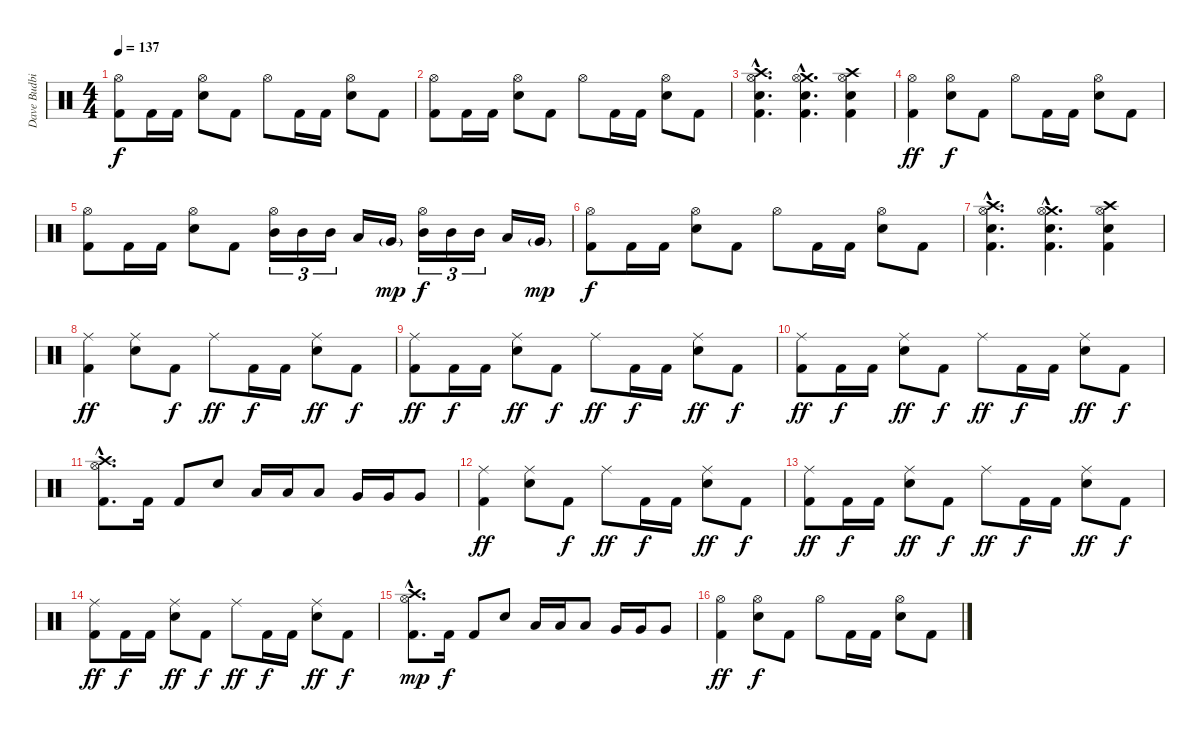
\track ("Dave Budbill" "Dave Budbi") {instrument percussion}
\staff {score}
\articulation defaults
\ts (4 4)
\tempo 137
\clef neutral
\ks c
("Hi-Hat (open)" "Kick (hit) 2").8{dy f} "Kick (hit) 2".16 "Kick (hit) 2".16 ("Hi-Hat (open)" "Electric Snare (hit)").8 "Kick (hit) 2".8 "Hi-Hat (open)".8 "Kick (hit) 2".16 "Kick (hit) 2".16 ("Hi-Hat (open)" "Electric Snare (hit)").8 "Kick (hit) 2".8 |
("Hi-Hat (open)" "Kick (hit) 2").8 "Kick (hit) 2".16 "Kick (hit) 2".16 ("Hi-Hat (open)" "Electric Snare (hit)").8 "Kick (hit) 2".8 "Hi-Hat (open)".8 "Kick (hit) 2".16 "Kick (hit) 2".16 ("Hi-Hat (open)" "Electric Snare (hit)").8 "Kick (hit) 2".8 |
("Snare (hit) 2"{hac} "Crash high (hit)"{hac} "Hi-Hat (open)"{hac} "Kick (hit) 2"{hac}).4{d} ("Snare (hit) 2"{hac} "Crash medium (hit)"{hac} "Hi-Hat (open)"{hac} "Kick (hit) 2"{hac}).4{d} ("Snare (hit) 2" "Crash high (hit)" "Hi-Hat (open)" "Kick (hit) 2").4 |
("Hi-Hat (open)" "Kick (hit) 2").4{dy ff} ("Hi-Hat (open)" "Electric Snare (hit)").8{dy f} "Kick (hit) 2".8 "Hi-Hat (open)".8 "Kick (hit) 2".16 "Kick (hit) 2".16 ("Hi-Hat (open)" "Electric Snare (hit)").8 "Kick (hit) 2".8 |
("Hi-Hat (open)" "Kick (hit) 2").8 "Kick (hit) 2".16 "Kick (hit) 2".16 ("Hi-Hat (open)" "Electric Snare (hit)").8 "Kick (hit) 2".8 ("Hi-Hat (open)" "Mid Tom (hit)").16{tu (3 2)} "Mid Tom (hit)".16{tu (3 2)} "Mid Tom (hit)".16{tu (3 2)} "Low Tom (hit)".16 "Very Low Tom (hit)"{g}.16{dy mp} ("Hi-Hat (open)" "Mid Tom (hit)").16{tu (3 2) dy f} "Mid Tom (hit)".16{tu (3 2)} "Mid Tom (hit)".16{tu (3 2)} "Low Tom (hit)".16 "Very Low Tom (hit)"{g}.16{dy mp} |
("Hi-Hat (open)" "Kick (hit) 2").8{dy f} "Kick (hit) 2".16 "Kick (hit) 2".16 ("Hi-Hat (open)" "Electric Snare (hit)").8 "Kick (hit) 2".8 "Hi-Hat (open)".8 "Kick (hit) 2".16 "Kick (hit) 2".16 ("Hi-Hat (open)" "Electric Snare (hit)").8 "Kick (hit) 2".8 |
("Snare (hit) 2"{hac} "Crash high (hit)"{hac} "Hi-Hat (open)"{hac} "Kick (hit) 2"{hac}).4{d} ("Snare (hit) 2"{hac} "Crash medium (hit)"{hac} "Hi-Hat (open)"{hac} "Kick (hit) 2"{hac}).4{d} ("Snare (hit) 2" "Crash high (hit)" "Hi-Hat (open)" "Kick (hit) 2").4 |
("Ride (middle)" "Kick (hit) 2").4{dy ff} ("Ride (middle)" "Electric Snare (hit)").8 "Kick (hit) 2".8{dy f} "Ride (middle)".8{dy ff} "Kick (hit) 2".16{dy f} "Kick (hit) 2".16 ("Ride (middle)" "Electric Snare (hit)").8{dy ff} "Kick (hit) 2".8{dy f} |
("Ride (middle)" "Kick (hit) 2").8{dy ff} "Kick (hit) 2".16{dy f} "Kick (hit) 2".16 ("Ride (middle)" "Electric Snare (hit)").8{dy ff} "Kick (hit) 2".8{dy f} "Ride (middle)".8{dy ff} "Kick (hit) 2".16{dy f} "Kick (hit) 2".16 ("Ride (middle)" "Electric Snare (hit)").8{dy ff} "Kick (hit) 2".8{dy f} |
("Ride (middle)" "Kick (hit) 2").8{dy ff} "Kick (hit) 2".16{dy f} "Kick (hit) 2".16 ("Ride (middle)" "Electric Snare (hit)").8{dy ff} "Kick (hit) 2".8{dy f} "Ride (middle)".8{dy ff} "Kick (hit) 2".16{dy f} "Kick (hit) 2".16 ("Ride (middle)" "Electric Snare (hit)").8{dy ff} "Kick (hit) 2".8{dy f} |
("Crash high (hit)"{hac} "Hi-Hat (open)"{hac} "Kick (hit) 2"{hac}).8{d} "Kick (hit) 2".16 "Kick (hit) 2".8 "Snare (hit) 2".8 "Low Tom (hit)".16 "Low Tom (hit)".16 "Low Tom (hit)".8 "Very Low Tom (hit)".16 "Very Low Tom (hit)".16 "Very Low Tom (hit)".8 |
("Ride (middle)" "Kick (hit) 2").4{dy ff} ("Ride (middle)" "Electric Snare (hit)").8 "Kick (hit) 2".8{dy f} "Ride (middle)".8{dy ff} "Kick (hit) 2".16{dy f} "Kick (hit) 2".16 ("Ride (middle)" "Electric Snare (hit)").8{dy ff} "Kick (hit) 2".8{dy f} |
("Ride (middle)" "Kick (hit) 2").8{dy ff} "Kick (hit) 2".16{dy f} "Kick (hit) 2".16 ("Ride (middle)" "Electric Snare (hit)").8{dy ff} "Kick (hit) 2".8{dy f} "Ride (middle)".8{dy ff} "Kick (hit) 2".16{dy f} "Kick (hit) 2".16 ("Ride (middle)" "Electric Snare (hit)").8{dy ff} "Kick (hit) 2".8{dy f} |
("Ride (middle)" "Kick (hit) 2").8{dy ff} "Kick (hit) 2".16{dy f} "Kick (hit) 2".16 ("Ride (middle)" "Electric Snare (hit)").8{dy ff} "Kick (hit) 2".8{dy f} "Ride (middle)".8{dy ff} "Kick (hit) 2".16{dy f} "Kick (hit) 2".16 ("Ride (middle)" "Electric Snare (hit)").8{dy ff} "Kick (hit) 2".8{dy f} |
("Crash high (hit)"{hac} "Hi-Hat (open)"{hac} "Kick (hit) 2"{hac}).8{d dy mp} "Kick (hit) 2".16{dy f} "Kick (hit) 2".8 "Snare (hit) 2".8 "Low Tom (hit)".16 "Low Tom (hit)".16 "Low Tom (hit)".8 "Very Low Tom (hit)".16 "Very Low Tom (hit)".16 "Very Low Tom (hit)".8 |
("Hi-Hat (open)" "Kick (hit) 2").4{dy ff} ("Hi-Hat (open)" "Electric Snare (hit)").8{dy f} "Kick (hit) 2".8 "Hi-Hat (open)".8 "Kick (hit) 2".16 "Kick (hit) 2".16 ("Hi-Hat (open)" "Electric Snare (hit)").8 "Kick (hit) 2".8
